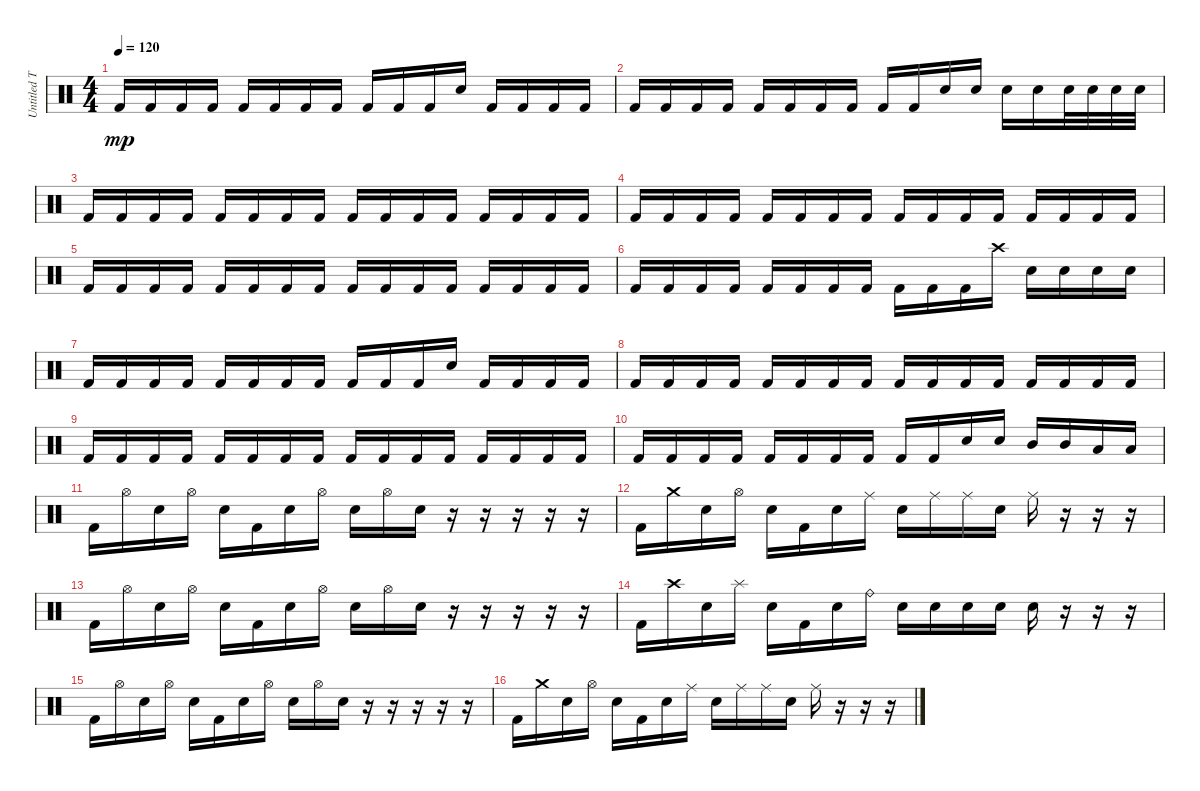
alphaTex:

\track ("Untitled Track" "Untitled T") {instrument percussion}
\staff {score}
\articulation defaults
\ts (4 4)
\tempo 120
\clef neutral
\ks c "Kick (hit) 2".16{dy mp} "Kick (hit) 2".16 "Kick (hit) 2".16 "Kick (hit) 2".16 "Kick (hit) 2".16 "Kick (hit) 2".16 "Kick (hit) 2".16 "Kick (hit) 2".16 "Kick (hit) 2".16 "Kick (hit) 2".16 "Kick (hit) 2".16 "Snare (hit) 2".16 "Kick (hit) 2".16 "Kick (hit) 2".16 "Kick (hit) 2".16 "Kick (hit) 2".16
|
"Kick (hit) 2".16 "Kick (hit) 2".16 "Kick (hit) 2".16 "Kick (hit) 2".16 "Kick (hit) 2".16 "Kick (hit) 2".16 "Kick (hit) 2".16 "Kick (hit) 2".16 "Kick (hit) 2".16 "Kick (hit) 2".16 "Snare (hit) 2".16 "Snare (hit) 2".16 "Snare (hit) 2".16 "Snare (hit) 2".16 "Snare (hit) 2".32 "Snare (hit) 2".32 "Snare (hit) 2".32 "Snare (hit) 2".32 |
"Kick (hit) 2".16 "Kick (hit) 2".16 "Kick (hit) 2".16 "Kick (hit) 2".16 "Kick (hit) 2".16 "Kick (hit) 2".16 "Kick (hit) 2".16 "Kick (hit) 2".16 "Kick (hit) 2".16 "Kick (hit) 2".16 "Kick (hit) 2".16 "Kick (hit) 2".16 "Kick (hit) 2".16 "Kick (hit) 2".16 "Kick (hit) 2".16 "Kick (hit) 2".16 |
"Kick (hit) 2".16 "Kick (hit) 2".16 "Kick (hit) 2".16 "Kick (hit) 2".16 "Kick (hit) 2".16 "Kick (hit) 2".16 "Kick (hit) 2".16 "Kick (hit) 2".16 "Kick (hit) 2".16 "Kick (hit) 2".16 "Kick (hit) 2".16 "Kick (hit) 2".16 "Kick (hit) 2".16 "Kick (hit) 2".16 "Kick (hit) 2".16 "Kick (hit) 2".16 |
"Kick (hit) 2".16 "Kick (hit) 2".16 "Kick (hit) 2".16 "Kick (hit) 2".16 "Kick (hit) 2".16 "Kick (hit) 2".16 "Kick (hit) 2".16 "Kick (hit) 2".16 "Kick (hit) 2".16 "Kick (hit) 2".16 "Kick (hit) 2".16 "Kick (hit) 2".16 "Kick (hit) 2".16 "Kick (hit) 2".16 "Kick (hit) 2".16 "Kick (hit) 2".16 |
"Kick (hit) 2".16 "Kick (hit) 2".16 "Kick (hit) 2".16 "Kick (hit) 2".16 "Kick (hit) 2".16 "Kick (hit) 2".16 "Kick (hit) 2".16 "Kick (hit) 2".16 "Kick (hit) 2".16 "Kick (hit) 2".16 "Kick (hit) 2".16 "Crash high (hit)".16 "Snare (hit) 2".16 "Snare (hit) 2".16 "Snare (hit) 2".16 "Snare (hit) 2".16 |
"Kick (hit) 2".16 "Kick (hit) 2".16 "Kick (hit) 2".16 "Kick (hit) 2".16 "Kick (hit) 2".16 "Kick (hit) 2".16 "Kick (hit) 2".16 "Kick (hit) 2".16 "Kick (hit) 2".16 "Kick (hit) 2".16 "Kick (hit) 2".16 "Snare (hit) 2".16 "Kick (hit) 2".16 "Kick (hit) 2".16 "Kick (hit) 2".16 "Kick (hit) 2".16 |
"Kick (hit) 2".16 "Kick (hit) 2".16 "Kick (hit) 2".16 "Kick (hit) 2".16 "Kick (hit) 2".16 "Kick (hit) 2".16 "Kick (hit) 2".16 "Kick (hit) 2".16 "Kick (hit) 2".16 "Kick (hit) 2".16 "Kick (hit) 2".16 "Kick (hit) 2".16 "Kick (hit) 2".16 "Kick (hit) 2".16 "Kick (hit) 2".16 "Kick (hit) 2".16 |
"Kick (hit) 2".16 "Kick (hit) 2".16 "Kick (hit) 2".16 "Kick (hit) 2".16 "Kick (hit) 2".16 "Kick (hit) 2".16 "Kick (hit) 2".16 "Kick (hit) 2".16 "Kick (hit) 2".16 "Kick (hit) 2".16 "Kick (hit) 2".16 "Kick (hit) 2".16 "Kick (hit) 2".16 "Kick (hit) 2".16 "Kick (hit) 2".16 "Kick (hit) 2".16 |
"Kick (hit) 2".16 "Kick (hit) 2".16 "Kick (hit) 2".16 "Kick (hit) 2".16 "Kick (hit) 2".16 "Kick (hit) 2".16 "Kick (hit) 2".16 "Kick (hit) 2".16 "Kick (hit) 2".16 "Kick (hit) 2".16 "Snare (hit) 2".16 "Snare (hit) 2".16 "Mid Tom (hit)".16 "Mid Tom (hit)".16 "Low Tom (hit)".16 "Low Tom (hit)".16 |
"Kick (hit) 2".16 "Hi-Hat (open)".16 "Snare (hit) 2".16 "Hi-Hat (open)".16 "Snare (hit) 2".16 "Kick (hit) 2".16 "Snare (hit) 2".16 "Hi-Hat (open)".16 "Snare (hit) 2".16 "Hi-Hat (open)".16 "Snare (hit) 2".16 r.16 r.16 r.16 r.16 r.16 |
"Kick (hit) 2".16 "Crash medium (hit)".16 "Snare (hit) 2".16 "Hi-Hat (open)".16 "Snare (hit) 2".16 "Kick (hit) 2".16 "Snare (hit) 2".16 "Ride (middle)".16 "Snare (hit) 2".16 "Ride (middle)".16 "Ride (middle)".16 "Snare (hit) 2".16 "Ride (middle)".16 r.16 r.16 r.16 |
"Kick (hit) 2".16 "Hi-Hat (open)".16 "Snare (hit) 2".16 "Hi-Hat (open)".16 "Snare (hit) 2".16 "Kick (hit) 2".16 "Snare (hit) 2".16 "Hi-Hat (open)".16 "Snare (hit) 2".16 "Hi-Hat (open)".16 "Snare (hit) 2".16 r.16 r.16 r.16 r.16 r.16 |
"Kick (hit) 2".16 "Crash high (hit)".16 "Snare (hit) 2".16 "Splash (hit)".16 "Snare (hit) 2".16 "Kick (hit) 2".16 "Snare (hit) 2".16 "Ride (bell)".16 "Snare (hit) 2".16 "Snare (hit) 2".16 "Snare (hit) 2".16 "Snare (hit) 2".16 "Snare (hit) 2".16 r.16 r.16 r.16 |
"Kick (hit) 2".16 "Hi-Hat (open)".16 "Snare (hit) 2".16 "Hi-Hat (open)".16 "Snare (hit) 2".16 "Kick (hit) 2".16 "Snare (hit) 2".16 "Hi-Hat (open)".16 "Snare (hit) 2".16 "Hi-Hat (open)".16 "Snare (hit) 2".16 r.16 r.16 r.16 r.16 r.16 |
"Kick (hit) 2".16 "Crash medium (hit)".16 "Snare (hit) 2".16 "Hi-Hat (open)".16 "Snare (hit) 2".16 "Kick (hit) 2".16 "Snare (hit) 2".16 "Ride (middle)".16 "Snare (hit) 2".16 "Ride (middle)".16 "Ride (middle)".16 "Snare (hit) 2".16 "Ride (middle)".16 r.16 r.16 r.16
